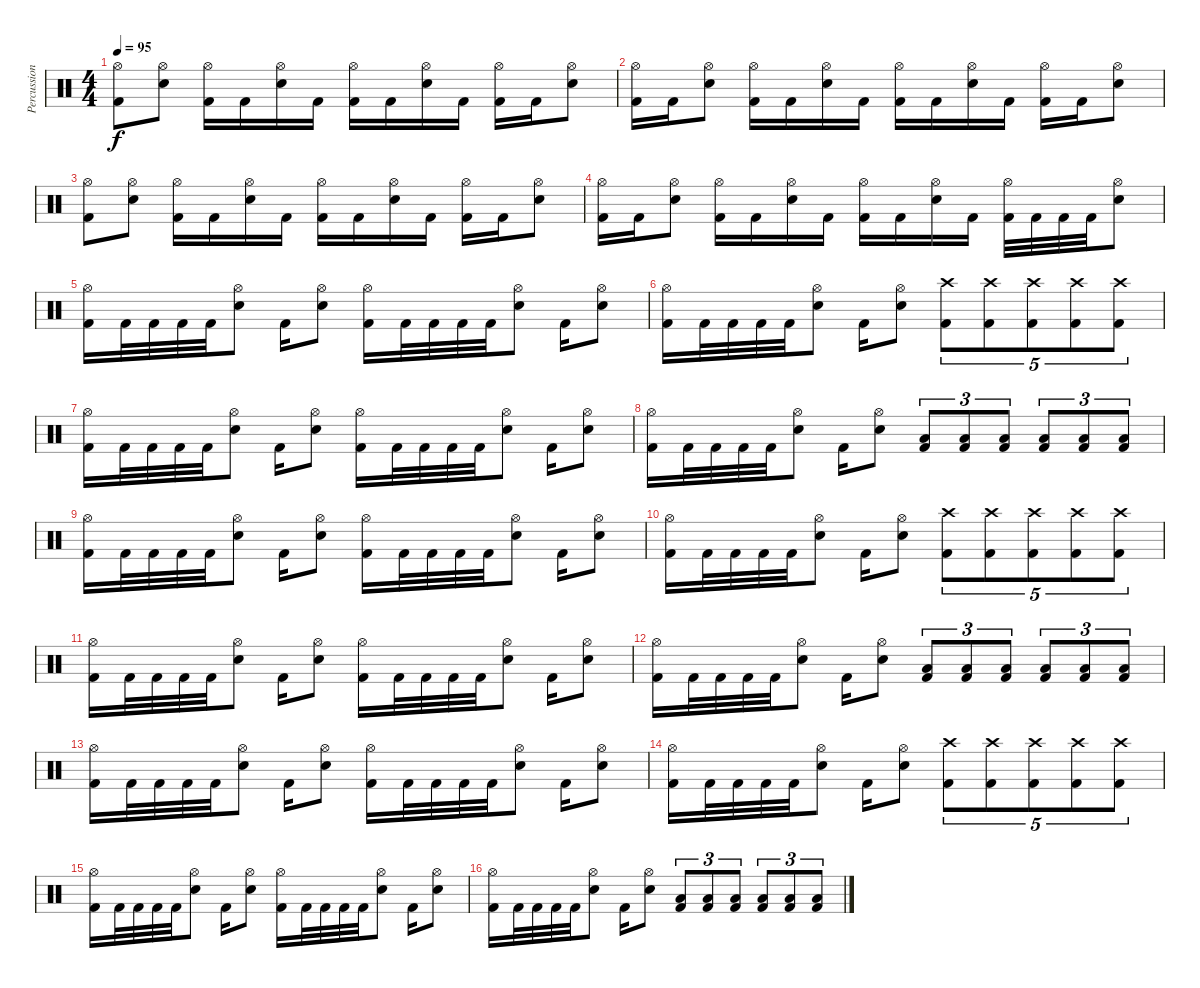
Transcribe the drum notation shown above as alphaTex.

\track ("Percussion" "Percussion") {instrument percussion}
\staff {score}
\articulation defaults
\ts (4 4)
\tempo 95
\clef neutral
\ks c
("Hi-Hat (open)" "Kick (hit) 2").8{dy f} ("Hi-Hat (open)" "Electric Snare (hit)").8 ("Hi-Hat (open)" "Kick (hit) 2").16 "Kick (hit) 2".16 ("Hi-Hat (open)" "Electric Snare (hit)").16 "Kick (hit) 2".16 ("Hi-Hat (open)" "Kick (hit) 2").16 "Kick (hit) 2".16 ("Hi-Hat (open)" "Electric Snare (hit)").16 "Kick (hit) 2".16 ("Hi-Hat (open)" "Kick (hit) 2").16 "Kick (hit) 2".16 ("Hi-Hat (open)" "Electric Snare (hit)").8 |
("Hi-Hat (open)" "Kick (hit) 2").16 "Kick (hit) 2".16 ("Hi-Hat (open)" "Electric Snare (hit)").8 ("Hi-Hat (open)" "Kick (hit) 2").16 "Kick (hit) 2".16 ("Hi-Hat (open)" "Electric Snare (hit)").16 "Kick (hit) 2".16 ("Hi-Hat (open)" "Kick (hit) 2").16 "Kick (hit) 2".16 ("Hi-Hat (open)" "Electric Snare (hit)").16 "Kick (hit) 2".16 ("Hi-Hat (open)" "Kick (hit) 2").16 "Kick (hit) 2".16 ("Hi-Hat (open)" "Electric Snare (hit)").8 |
("Hi-Hat (open)" "Kick (hit) 2").8 ("Hi-Hat (open)" "Electric Snare (hit)").8 ("Hi-Hat (open)" "Kick (hit) 2").16 "Kick (hit) 2".16 ("Hi-Hat (open)" "Electric Snare (hit)").16 "Kick (hit) 2".16 ("Hi-Hat (open)" "Kick (hit) 2").16 "Kick (hit) 2".16 ("Hi-Hat (open)" "Electric Snare (hit)").16 "Kick (hit) 2".16 ("Hi-Hat (open)" "Kick (hit) 2").16 "Kick (hit) 2".16 ("Hi-Hat (open)" "Electric Snare (hit)").8 |
("Hi-Hat (open)" "Kick (hit) 2").16 "Kick (hit) 2".16 ("Hi-Hat (open)" "Electric Snare (hit)").8 ("Hi-Hat (open)" "Kick (hit) 2").16 "Kick (hit) 2".16 ("Hi-Hat (open)" "Electric Snare (hit)").16 "Kick (hit) 2".16 ("Hi-Hat (open)" "Kick (hit) 2").16 "Kick (hit) 2".16 ("Hi-Hat (open)" "Electric Snare (hit)").16 "Kick (hit) 2".16 ("Hi-Hat (open)" "Kick (hit) 2").32 "Kick (hit) 2".32 "Kick (hit) 2".32 "Kick (hit) 2".32 ("Hi-Hat (open)" "Electric Snare (hit)").8 |
("Hi-Hat (open)" "Kick (hit) 2").16 "Kick (hit) 2".32 "Kick (hit) 2".32 "Kick (hit) 2".32 "Kick (hit) 2".32 ("Hi-Hat (open)" "Electric Snare (hit)").8 "Kick (hit) 2".16 ("Hi-Hat (open)" "Electric Snare (hit)").8 ("Hi-Hat (open)" "Kick (hit) 2").16 "Kick (hit) 2".32 "Kick (hit) 2".32 "Kick (hit) 2".32 "Kick (hit) 2".32 ("Hi-Hat (open)" "Electric Snare (hit)").8 "Kick (hit) 2".16 ("Hi-Hat (open)" "Electric Snare (hit)").8 |
("Hi-Hat (open)" "Kick (hit) 2").16 "Kick (hit) 2".32 "Kick (hit) 2".32 "Kick (hit) 2".32 "Kick (hit) 2".32 ("Hi-Hat (open)" "Electric Snare (hit)").8 "Kick (hit) 2".16 ("Hi-Hat (open)" "Electric Snare (hit)").8 ("Crash high (hit)" "Kick (hit) 2").8{tu (5 4)} ("Crash high (hit)" "Kick (hit) 2").8{tu (5 4)} ("Crash high (hit)" "Kick (hit) 2").8{tu (5 4)} ("Crash high (hit)" "Kick (hit) 2").8{tu (5 4)} ("Crash high (hit)" "Kick (hit) 2").8{tu (5 4)} |
("Hi-Hat (open)" "Kick (hit) 2").16 "Kick (hit) 2".32 "Kick (hit) 2".32 "Kick (hit) 2".32 "Kick (hit) 2".32 ("Hi-Hat (open)" "Electric Snare (hit)").8 "Kick (hit) 2".16 ("Hi-Hat (open)" "Electric Snare (hit)").8 ("Hi-Hat (open)" "Kick (hit) 2").16 "Kick (hit) 2".32 "Kick (hit) 2".32 "Kick (hit) 2".32 "Kick (hit) 2".32 ("Hi-Hat (open)" "Electric Snare (hit)").8 "Kick (hit) 2".16 ("Hi-Hat (open)" "Electric Snare (hit)").8 |
("Hi-Hat (open)" "Kick (hit) 2").16 "Kick (hit) 2".32 "Kick (hit) 2".32 "Kick (hit) 2".32 "Kick (hit) 2".32 ("Hi-Hat (open)" "Electric Snare (hit)").8 "Kick (hit) 2".16 ("Hi-Hat (open)" "Electric Snare (hit)").8 ("Low Tom (hit)" "Kick (hit) 2").8{tu (3 2)} ("Low Tom (hit)" "Kick (hit) 2").8{tu (3 2)} ("Low Tom (hit)" "Kick (hit) 2").8{tu (3 2)} ("Low Tom (hit)" "Kick (hit) 2").8{tu (3 2)} ("Low Tom (hit)" "Kick (hit) 2").8{tu (3 2)} ("Low Tom (hit)" "Kick (hit) 2").8{tu (3 2)} |
("Hi-Hat (open)" "Kick (hit) 2").16 "Kick (hit) 2".32 "Kick (hit) 2".32 "Kick (hit) 2".32 "Kick (hit) 2".32 ("Hi-Hat (open)" "Electric Snare (hit)").8 "Kick (hit) 2".16 ("Hi-Hat (open)" "Electric Snare (hit)").8 ("Hi-Hat (open)" "Kick (hit) 2").16 "Kick (hit) 2".32 "Kick (hit) 2".32 "Kick (hit) 2".32 "Kick (hit) 2".32 ("Hi-Hat (open)" "Electric Snare (hit)").8 "Kick (hit) 2".16 ("Hi-Hat (open)" "Electric Snare (hit)").8 |
("Hi-Hat (open)" "Kick (hit) 2").16 "Kick (hit) 2".32 "Kick (hit) 2".32 "Kick (hit) 2".32 "Kick (hit) 2".32 ("Hi-Hat (open)" "Electric Snare (hit)").8 "Kick (hit) 2".16 ("Hi-Hat (open)" "Electric Snare (hit)").8 ("Crash high (hit)" "Kick (hit) 2").8{tu (5 4)} ("Crash high (hit)" "Kick (hit) 2").8{tu (5 4)} ("Crash high (hit)" "Kick (hit) 2").8{tu (5 4)} ("Crash high (hit)" "Kick (hit) 2").8{tu (5 4)} ("Crash high (hit)" "Kick (hit) 2").8{tu (5 4)} |
("Hi-Hat (open)" "Kick (hit) 2").16 "Kick (hit) 2".32 "Kick (hit) 2".32 "Kick (hit) 2".32 "Kick (hit) 2".32 ("Hi-Hat (open)" "Electric Snare (hit)").8 "Kick (hit) 2".16 ("Hi-Hat (open)" "Electric Snare (hit)").8 ("Hi-Hat (open)" "Kick (hit) 2").16 "Kick (hit) 2".32 "Kick (hit) 2".32 "Kick (hit) 2".32 "Kick (hit) 2".32 ("Hi-Hat (open)" "Electric Snare (hit)").8 "Kick (hit) 2".16 ("Hi-Hat (open)" "Electric Snare (hit)").8 |
("Hi-Hat (open)" "Kick (hit) 2").16 "Kick (hit) 2".32 "Kick (hit) 2".32 "Kick (hit) 2".32 "Kick (hit) 2".32 ("Hi-Hat (open)" "Electric Snare (hit)").8 "Kick (hit) 2".16 ("Hi-Hat (open)" "Electric Snare (hit)").8 ("Low Tom (hit)" "Kick (hit) 2").8{tu (3 2)} ("Low Tom (hit)" "Kick (hit) 2").8{tu (3 2)} ("Low Tom (hit)" "Kick (hit) 2").8{tu (3 2)} ("Low Tom (hit)" "Kick (hit) 2").8{tu (3 2)} ("Low Tom (hit)" "Kick (hit) 2").8{tu (3 2)} ("Low Tom (hit)" "Kick (hit) 2").8{tu (3 2)} |
("Hi-Hat (open)" "Kick (hit) 2").16 "Kick (hit) 2".32 "Kick (hit) 2".32 "Kick (hit) 2".32 "Kick (hit) 2".32 ("Hi-Hat (open)" "Electric Snare (hit)").8 "Kick (hit) 2".16 ("Hi-Hat (open)" "Electric Snare (hit)").8 ("Hi-Hat (open)" "Kick (hit) 2").16 "Kick (hit) 2".32 "Kick (hit) 2".32 "Kick (hit) 2".32 "Kick (hit) 2".32 ("Hi-Hat (open)" "Electric Snare (hit)").8 "Kick (hit) 2".16 ("Hi-Hat (open)" "Electric Snare (hit)").8 |
("Hi-Hat (open)" "Kick (hit) 2").16 "Kick (hit) 2".32 "Kick (hit) 2".32 "Kick (hit) 2".32 "Kick (hit) 2".32 ("Hi-Hat (open)" "Electric Snare (hit)").8 "Kick (hit) 2".16 ("Hi-Hat (open)" "Electric Snare (hit)").8 ("Crash high (hit)" "Kick (hit) 2").8{tu (5 4)} ("Crash high (hit)" "Kick (hit) 2").8{tu (5 4)} ("Crash high (hit)" "Kick (hit) 2").8{tu (5 4)} ("Crash high (hit)" "Kick (hit) 2").8{tu (5 4)} ("Crash high (hit)" "Kick (hit) 2").8{tu (5 4)} |
("Hi-Hat (open)" "Kick (hit) 2").16 "Kick (hit) 2".32 "Kick (hit) 2".32 "Kick (hit) 2".32 "Kick (hit) 2".32 ("Hi-Hat (open)" "Electric Snare (hit)").8 "Kick (hit) 2".16 ("Hi-Hat (open)" "Electric Snare (hit)").8 ("Hi-Hat (open)" "Kick (hit) 2").16 "Kick (hit) 2".32 "Kick (hit) 2".32 "Kick (hit) 2".32 "Kick (hit) 2".32 ("Hi-Hat (open)" "Electric Snare (hit)").8 "Kick (hit) 2".16 ("Hi-Hat (open)" "Electric Snare (hit)").8 |
("Hi-Hat (open)" "Kick (hit) 2").16 "Kick (hit) 2".32 "Kick (hit) 2".32 "Kick (hit) 2".32 "Kick (hit) 2".32 ("Hi-Hat (open)" "Electric Snare (hit)").8 "Kick (hit) 2".16 ("Hi-Hat (open)" "Electric Snare (hit)").8 ("Low Tom (hit)" "Kick (hit) 2").8{tu (3 2)} ("Low Tom (hit)" "Kick (hit) 2").8{tu (3 2)} ("Low Tom (hit)" "Kick (hit) 2").8{tu (3 2)} ("Low Tom (hit)" "Kick (hit) 2").8{tu (3 2)} ("Low Tom (hit)" "Kick (hit) 2").8{tu (3 2)} ("Low Tom (hit)" "Kick (hit) 2").8{tu (3 2)}
